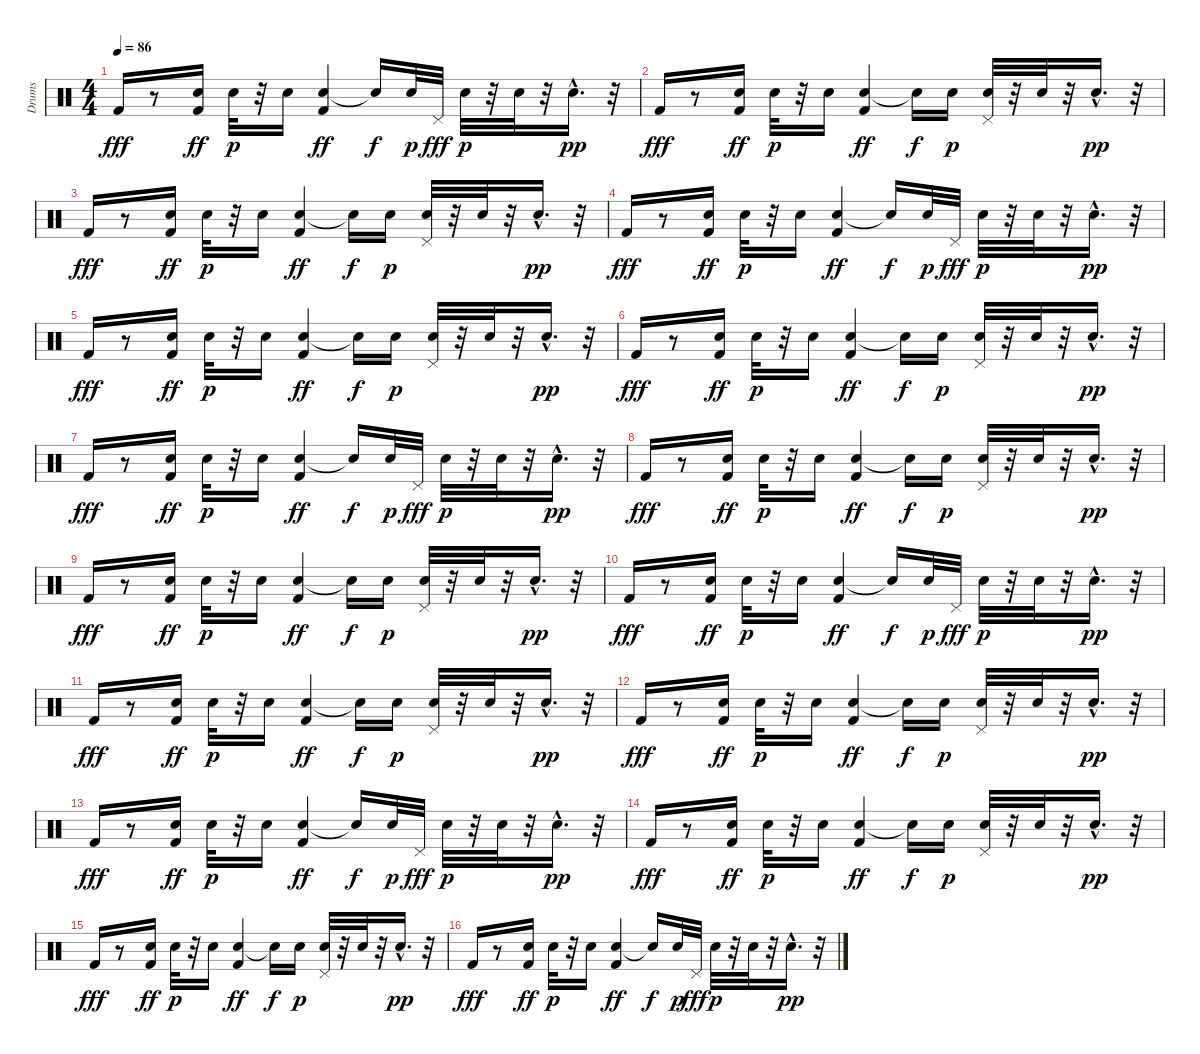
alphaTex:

\track ("Drums" "Drums") {instrument percussion}
\staff {score}
\articulation defaults
\ts (4 4)
\tempo 86
\clef neutral
\ks c "Kick (hit) 2".16{dy fff}
r.8 ("Snare (hit) 2" "Kick (hit) 2").16{dy ff} "Snare (hit) 2".32{dy p} r.32 "Snare (hit) 2".16 ("Snare (hit) 2" "Kick (hit) 2").4{dy ff} "Snare (hit)"{t}.16{dy f} "Snare (hit) 2".32{dy p} "Pedal Hi-Hat (hit)".32{dy fff} "Snare (hit) 2".32{dy p} r.32 "Snare (hit) 2".32 r.32 "Snare (hit) 2"{hac}.16{d dy pp} r.32 |
"Kick (hit) 2".16{dy fff} r.8 ("Snare (hit) 2" "Kick (hit) 2").16{dy ff} "Snare (hit) 2".32{dy p} r.32 "Snare (hit) 2".16 ("Snare (hit) 2" "Kick (hit) 2").4{dy ff} "Snare (hit)"{t}.16{dy f} "Snare (hit) 2".16{dy p} ("Pedal Hi-Hat (hit)" "Snare (hit) 2").32 r.32 "Snare (hit) 2".32 r.32 "Snare (hit) 2"{hac}.16{d dy pp} r.32 |
"Kick (hit) 2".16{dy fff} r.8 ("Snare (hit) 2" "Kick (hit) 2").16{dy ff} "Snare (hit) 2".32{dy p} r.32 "Snare (hit) 2".16 ("Snare (hit) 2" "Kick (hit) 2").4{dy ff} "Snare (hit)"{t}.16{dy f} "Snare (hit) 2".16{dy p} ("Pedal Hi-Hat (hit)" "Snare (hit) 2").32 r.32 "Snare (hit) 2".32 r.32 "Snare (hit) 2"{hac}.16{d dy pp} r.32 |
"Kick (hit) 2".16{dy fff} r.8 ("Snare (hit) 2" "Kick (hit) 2").16{dy ff} "Snare (hit) 2".32{dy p} r.32 "Snare (hit) 2".16 ("Snare (hit) 2" "Kick (hit) 2").4{dy ff} "Snare (hit)"{t}.16{dy f} "Snare (hit) 2".32{dy p} "Pedal Hi-Hat (hit)".32{dy fff} "Snare (hit) 2".32{dy p} r.32 "Snare (hit) 2".32 r.32 "Snare (hit) 2"{hac}.16{d dy pp} r.32 |
"Kick (hit) 2".16{dy fff} r.8 ("Snare (hit) 2" "Kick (hit) 2").16{dy ff} "Snare (hit) 2".32{dy p} r.32 "Snare (hit) 2".16 ("Snare (hit) 2" "Kick (hit) 2").4{dy ff} "Snare (hit)"{t}.16{dy f} "Snare (hit) 2".16{dy p} ("Pedal Hi-Hat (hit)" "Snare (hit) 2").32 r.32 "Snare (hit) 2".32 r.32 "Snare (hit) 2"{hac}.16{d dy pp} r.32 |
"Kick (hit) 2".16{dy fff} r.8 ("Snare (hit) 2" "Kick (hit) 2").16{dy ff} "Snare (hit) 2".32{dy p} r.32 "Snare (hit) 2".16 ("Snare (hit) 2" "Kick (hit) 2").4{dy ff} "Snare (hit)"{t}.16{dy f} "Snare (hit) 2".16{dy p} ("Pedal Hi-Hat (hit)" "Snare (hit) 2").32 r.32 "Snare (hit) 2".32 r.32 "Snare (hit) 2"{hac}.16{d dy pp} r.32 |
"Kick (hit) 2".16{dy fff} r.8 ("Snare (hit) 2" "Kick (hit) 2").16{dy ff} "Snare (hit) 2".32{dy p} r.32 "Snare (hit) 2".16 ("Snare (hit) 2" "Kick (hit) 2").4{dy ff} "Snare (hit)"{t}.16{dy f} "Snare (hit) 2".32{dy p} "Pedal Hi-Hat (hit)".32{dy fff} "Snare (hit) 2".32{dy p} r.32 "Snare (hit) 2".32 r.32 "Snare (hit) 2"{hac}.16{d dy pp} r.32 |
"Kick (hit) 2".16{dy fff} r.8 ("Snare (hit) 2" "Kick (hit) 2").16{dy ff} "Snare (hit) 2".32{dy p} r.32 "Snare (hit) 2".16 ("Snare (hit) 2" "Kick (hit) 2").4{dy ff} "Snare (hit)"{t}.16{dy f} "Snare (hit) 2".16{dy p} ("Pedal Hi-Hat (hit)" "Snare (hit) 2").32 r.32 "Snare (hit) 2".32 r.32 "Snare (hit) 2"{hac}.16{d dy pp} r.32 |
"Kick (hit) 2".16{dy fff} r.8 ("Snare (hit) 2" "Kick (hit) 2").16{dy ff} "Snare (hit) 2".32{dy p} r.32 "Snare (hit) 2".16 ("Snare (hit) 2" "Kick (hit) 2").4{dy ff} "Snare (hit)"{t}.16{dy f} "Snare (hit) 2".16{dy p} ("Pedal Hi-Hat (hit)" "Snare (hit) 2").32 r.32 "Snare (hit) 2".32 r.32 "Snare (hit) 2"{hac}.16{d dy pp} r.32 |
"Kick (hit) 2".16{dy fff} r.8 ("Snare (hit) 2" "Kick (hit) 2").16{dy ff} "Snare (hit) 2".32{dy p} r.32 "Snare (hit) 2".16 ("Snare (hit) 2" "Kick (hit) 2").4{dy ff} "Snare (hit)"{t}.16{dy f} "Snare (hit) 2".32{dy p} "Pedal Hi-Hat (hit)".32{dy fff} "Snare (hit) 2".32{dy p} r.32 "Snare (hit) 2".32 r.32 "Snare (hit) 2"{hac}.16{d dy pp} r.32 |
"Kick (hit) 2".16{dy fff} r.8 ("Snare (hit) 2" "Kick (hit) 2").16{dy ff} "Snare (hit) 2".32{dy p} r.32 "Snare (hit) 2".16 ("Snare (hit) 2" "Kick (hit) 2").4{dy ff} "Snare (hit)"{t}.16{dy f} "Snare (hit) 2".16{dy p} ("Pedal Hi-Hat (hit)" "Snare (hit) 2").32 r.32 "Snare (hit) 2".32 r.32 "Snare (hit) 2"{hac}.16{d dy pp} r.32 |
"Kick (hit) 2".16{dy fff} r.8 ("Snare (hit) 2" "Kick (hit) 2").16{dy ff} "Snare (hit) 2".32{dy p} r.32 "Snare (hit) 2".16 ("Snare (hit) 2" "Kick (hit) 2").4{dy ff} "Snare (hit)"{t}.16{dy f} "Snare (hit) 2".16{dy p} ("Pedal Hi-Hat (hit)" "Snare (hit) 2").32 r.32 "Snare (hit) 2".32 r.32 "Snare (hit) 2"{hac}.16{d dy pp} r.32 |
"Kick (hit) 2".16{dy fff} r.8 ("Snare (hit) 2" "Kick (hit) 2").16{dy ff} "Snare (hit) 2".32{dy p} r.32 "Snare (hit) 2".16 ("Snare (hit) 2" "Kick (hit) 2").4{dy ff} "Snare (hit)"{t}.16{dy f} "Snare (hit) 2".32{dy p} "Pedal Hi-Hat (hit)".32{dy fff} "Snare (hit) 2".32{dy p} r.32 "Snare (hit) 2".32 r.32 "Snare (hit) 2"{hac}.16{d dy pp} r.32 |
"Kick (hit) 2".16{dy fff} r.8 ("Snare (hit) 2" "Kick (hit) 2").16{dy ff} "Snare (hit) 2".32{dy p} r.32 "Snare (hit) 2".16 ("Snare (hit) 2" "Kick (hit) 2").4{dy ff} "Snare (hit)"{t}.16{dy f} "Snare (hit) 2".16{dy p} ("Pedal Hi-Hat (hit)" "Snare (hit) 2").32 r.32 "Snare (hit) 2".32 r.32 "Snare (hit) 2"{hac}.16{d dy pp} r.32 |
"Kick (hit) 2".16{dy fff} r.8 ("Snare (hit) 2" "Kick (hit) 2").16{dy ff} "Snare (hit) 2".32{dy p} r.32 "Snare (hit) 2".16 ("Snare (hit) 2" "Kick (hit) 2").4{dy ff} "Snare (hit)"{t}.16{dy f} "Snare (hit) 2".16{dy p} ("Pedal Hi-Hat (hit)" "Snare (hit) 2").32 r.32 "Snare (hit) 2".32 r.32 "Snare (hit) 2"{hac}.16{d dy pp} r.32 |
"Kick (hit) 2".16{dy fff} r.8 ("Snare (hit) 2" "Kick (hit) 2").16{dy ff} "Snare (hit) 2".32{dy p} r.32 "Snare (hit) 2".16 ("Snare (hit) 2" "Kick (hit) 2").4{dy ff} "Snare (hit)"{t}.16{dy f} "Snare (hit) 2".32{dy p} "Pedal Hi-Hat (hit)".32{dy fff} "Snare (hit) 2".32{dy p} r.32 "Snare (hit) 2".32 r.32 "Snare (hit) 2"{hac}.16{d dy pp} r.32
